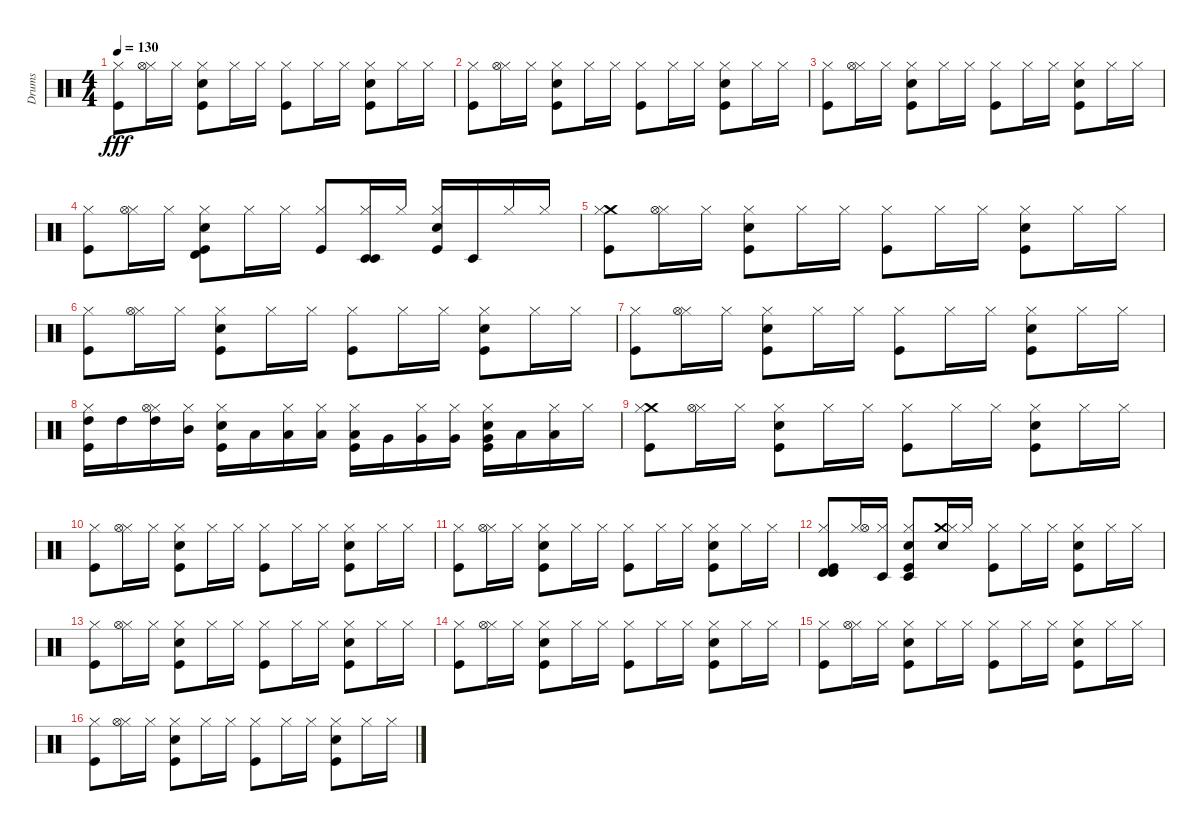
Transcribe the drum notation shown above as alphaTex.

\track ("Drums" "Drums") {instrument percussion}
\staff {score}
\articulation defaults
\ts (4 4)
\tempo 130
\clef neutral
\ks c
("Kick (hit)" "Hi-Hat (closed)").8{dy fff} ("Hi-Hat (closed)" "Hi-Hat (open)").16 "Hi-Hat (closed)".16 ("Kick (hit)" "Electric Snare (hit)" "Hi-Hat (closed)").8 "Hi-Hat (closed)".16 "Hi-Hat (closed)".16 ("Kick (hit)" "Hi-Hat (closed)").8 "Hi-Hat (closed)".16 "Hi-Hat (closed)".16 ("Kick (hit)" "Electric Snare (hit)" "Hi-Hat (closed)").8 "Hi-Hat (closed)".16 "Hi-Hat (closed)".16 |
("Kick (hit)" "Hi-Hat (closed)").8 ("Hi-Hat (closed)" "Hi-Hat (open)").16 "Hi-Hat (closed)".16 ("Kick (hit)" "Electric Snare (hit)" "Hi-Hat (closed)").8 "Hi-Hat (closed)".16 "Hi-Hat (closed)".16 ("Kick (hit)" "Hi-Hat (closed)").8 "Hi-Hat (closed)".16 "Hi-Hat (closed)".16 ("Kick (hit)" "Electric Snare (hit)" "Hi-Hat (closed)").8 "Hi-Hat (closed)".16 "Hi-Hat (closed)".16 |
("Kick (hit)" "Hi-Hat (closed)").8 ("Hi-Hat (closed)" "Hi-Hat (open)").16 "Hi-Hat (closed)".16 ("Kick (hit)" "Electric Snare (hit)" "Hi-Hat (closed)").8 "Hi-Hat (closed)".16 "Hi-Hat (closed)".16 ("Kick (hit)" "Hi-Hat (closed)").8 "Hi-Hat (closed)".16 "Hi-Hat (closed)".16 ("Kick (hit)" "Electric Snare (hit)" "Hi-Hat (closed)").8 "Hi-Hat (closed)".16 "Hi-Hat (closed)".16 |
("Kick (hit)" "Hi-Hat (closed)").8 ("Hi-Hat (closed)" "Hi-Hat (open)").16 "Hi-Hat (closed)".16 ("Kick (hit)" "Electric Snare (hit)" "Hi-Hat (closed)" "Timbale high (hit)").8 "Hi-Hat (closed)".16 "Hi-Hat (closed)".16 ("Kick (hit)" "Hi-Hat (closed)").8 ("Hi-Hat (closed)" "Timbale low (hit)" "Timbale low (hit)").16 "Hi-Hat (closed)".16 ("Kick (hit)" "Electric Snare (hit)" "Hi-Hat (closed)").16 "Timbale low (hit)".16 "Hi-Hat (closed)".16 "Hi-Hat (closed)".16 |
("Crash medium (hit)" "Kick (hit)" "Hi-Hat (closed)").8 ("Hi-Hat (closed)" "Hi-Hat (open)").16 "Hi-Hat (closed)".16 ("Kick (hit)" "Electric Snare (hit)" "Hi-Hat (closed)").8 "Hi-Hat (closed)".16 "Hi-Hat (closed)".16 ("Kick (hit)" "Hi-Hat (closed)").8 "Hi-Hat (closed)".16 "Hi-Hat (closed)".16 ("Kick (hit)" "Electric Snare (hit)" "Hi-Hat (closed)").8 "Hi-Hat (closed)".16 "Hi-Hat (closed)".16 |
("Kick (hit)" "Hi-Hat (closed)").8 ("Hi-Hat (closed)" "Hi-Hat (open)").16 "Hi-Hat (closed)".16 ("Kick (hit)" "Electric Snare (hit)" "Hi-Hat (closed)").8 "Hi-Hat (closed)".16 "Hi-Hat (closed)".16 ("Kick (hit)" "Hi-Hat (closed)").8 "Hi-Hat (closed)".16 "Hi-Hat (closed)".16 ("Kick (hit)" "Electric Snare (hit)" "Hi-Hat (closed)").8 "Hi-Hat (closed)".16 "Hi-Hat (closed)".16 |
("Kick (hit)" "Hi-Hat (closed)").8 ("Hi-Hat (closed)" "Hi-Hat (open)").16 "Hi-Hat (closed)".16 ("Kick (hit)" "Electric Snare (hit)" "Hi-Hat (closed)").8 "Hi-Hat (closed)".16 "Hi-Hat (closed)".16 ("Kick (hit)" "Hi-Hat (closed)").8 "Hi-Hat (closed)".16 "Hi-Hat (closed)".16 ("Kick (hit)" "Electric Snare (hit)" "Hi-Hat (closed)").8 "Hi-Hat (closed)".16 "Hi-Hat (closed)".16 |
("Kick (hit)" "Hi-Hat (closed)" "High Tom (hit)").16 "High Tom (hit)".16 ("Hi-Hat (closed)" "Hi-Hat (open)" "High Tom (hit)").16 ("Hi-Hat (closed)" "Mid Tom (hit)").16 ("Kick (hit)" "Electric Snare (hit)" "Hi-Hat (closed)").16 "Low Tom (hit)".16 ("Hi-Hat (closed)" "Low Tom (hit)").16 ("Hi-Hat (closed)" "Low Tom (hit)").16 ("Kick (hit)" "Hi-Hat (closed)" "Low Tom (hit)").16 "Very Low Tom (hit)".16 ("Hi-Hat (closed)" "Very Low Tom (hit)").16 ("Hi-Hat (closed)" "Very Low Tom (hit)").16 ("Kick (hit)" "Electric Snare (hit)" "Hi-Hat (closed)" "Very Low Tom (hit)").16 "Low Floor Tom (hit)".16 ("Low Floor Tom (hit)" "Hi-Hat (closed)").16 "Hi-Hat (closed)".16 |
("Crash medium (hit)" "Kick (hit)" "Hi-Hat (closed)").8 ("Hi-Hat (closed)" "Hi-Hat (open)").16 "Hi-Hat (closed)".16 ("Kick (hit)" "Electric Snare (hit)" "Hi-Hat (closed)").8 "Hi-Hat (closed)".16 "Hi-Hat (closed)".16 ("Kick (hit)" "Hi-Hat (closed)").8 "Hi-Hat (closed)".16 "Hi-Hat (closed)".16 ("Kick (hit)" "Electric Snare (hit)" "Hi-Hat (closed)").8 "Hi-Hat (closed)".16 "Hi-Hat (closed)".16 |
("Kick (hit)" "Hi-Hat (closed)").8 ("Hi-Hat (closed)" "Hi-Hat (open)").16 "Hi-Hat (closed)".16 ("Kick (hit)" "Electric Snare (hit)" "Hi-Hat (closed)").8 "Hi-Hat (closed)".16 "Hi-Hat (closed)".16 ("Kick (hit)" "Hi-Hat (closed)").8 "Hi-Hat (closed)".16 "Hi-Hat (closed)".16 ("Kick (hit)" "Electric Snare (hit)" "Hi-Hat (closed)").8 "Hi-Hat (closed)".16 "Hi-Hat (closed)".16 |
("Kick (hit)" "Hi-Hat (closed)").8 ("Hi-Hat (closed)" "Hi-Hat (open)").16 "Hi-Hat (closed)".16 ("Kick (hit)" "Electric Snare (hit)" "Hi-Hat (closed)").8 "Hi-Hat (closed)".16 "Hi-Hat (closed)".16 ("Kick (hit)" "Hi-Hat (closed)").8 "Hi-Hat (closed)".16 "Hi-Hat (closed)".16 ("Kick (hit)" "Electric Snare (hit)" "Hi-Hat (closed)").8 "Hi-Hat (closed)".16 "Hi-Hat (closed)".16 |
("Kick (hit)" "Hi-Hat (closed)" "Timbale high (hit)" "Timbale high (hit)").8 ("Hi-Hat (closed)" "Hi-Hat (open)").16 ("Hi-Hat (closed)" "Timbale low (hit)").16 ("Kick (hit)" "Electric Snare (hit)" "Hi-Hat (closed)" "Timbale low (hit)").8 ("Crash medium (hit)" "Electric Snare (hit)" "Hi-Hat (closed)").16 "Hi-Hat (closed)".16 ("Kick (hit)" "Hi-Hat (closed)").8 "Hi-Hat (closed)".16 "Hi-Hat (closed)".16 ("Kick (hit)" "Electric Snare (hit)" "Hi-Hat (closed)").8 "Hi-Hat (closed)".16 "Hi-Hat (closed)".16 |
("Kick (hit)" "Hi-Hat (closed)").8 ("Hi-Hat (closed)" "Hi-Hat (open)").16 "Hi-Hat (closed)".16 ("Kick (hit)" "Electric Snare (hit)" "Hi-Hat (closed)").8 "Hi-Hat (closed)".16 "Hi-Hat (closed)".16 ("Kick (hit)" "Hi-Hat (closed)").8 "Hi-Hat (closed)".16 "Hi-Hat (closed)".16 ("Kick (hit)" "Electric Snare (hit)" "Hi-Hat (closed)").8 "Hi-Hat (closed)".16 "Hi-Hat (closed)".16 |
("Kick (hit)" "Hi-Hat (closed)").8 ("Hi-Hat (closed)" "Hi-Hat (open)").16 "Hi-Hat (closed)".16 ("Kick (hit)" "Electric Snare (hit)" "Hi-Hat (closed)").8 "Hi-Hat (closed)".16 "Hi-Hat (closed)".16 ("Kick (hit)" "Hi-Hat (closed)").8 "Hi-Hat (closed)".16 "Hi-Hat (closed)".16 ("Kick (hit)" "Electric Snare (hit)" "Hi-Hat (closed)").8 "Hi-Hat (closed)".16 "Hi-Hat (closed)".16 |
("Kick (hit)" "Hi-Hat (closed)").8 ("Hi-Hat (closed)" "Hi-Hat (open)").16 "Hi-Hat (closed)".16 ("Kick (hit)" "Electric Snare (hit)" "Hi-Hat (closed)").8 "Hi-Hat (closed)".16 "Hi-Hat (closed)".16 ("Kick (hit)" "Hi-Hat (closed)").8 "Hi-Hat (closed)".16 "Hi-Hat (closed)".16 ("Kick (hit)" "Electric Snare (hit)" "Hi-Hat (closed)").8 "Hi-Hat (closed)".16 "Hi-Hat (closed)".16 |
("Kick (hit)" "Hi-Hat (closed)").8 ("Hi-Hat (closed)" "Hi-Hat (open)").16 "Hi-Hat (closed)".16 ("Kick (hit)" "Electric Snare (hit)" "Hi-Hat (closed)").8 "Hi-Hat (closed)".16 "Hi-Hat (closed)".16 ("Kick (hit)" "Hi-Hat (closed)").8 "Hi-Hat (closed)".16 "Hi-Hat (closed)".16 ("Kick (hit)" "Electric Snare (hit)" "Hi-Hat (closed)").8 "Hi-Hat (closed)".16 "Hi-Hat (closed)".16
